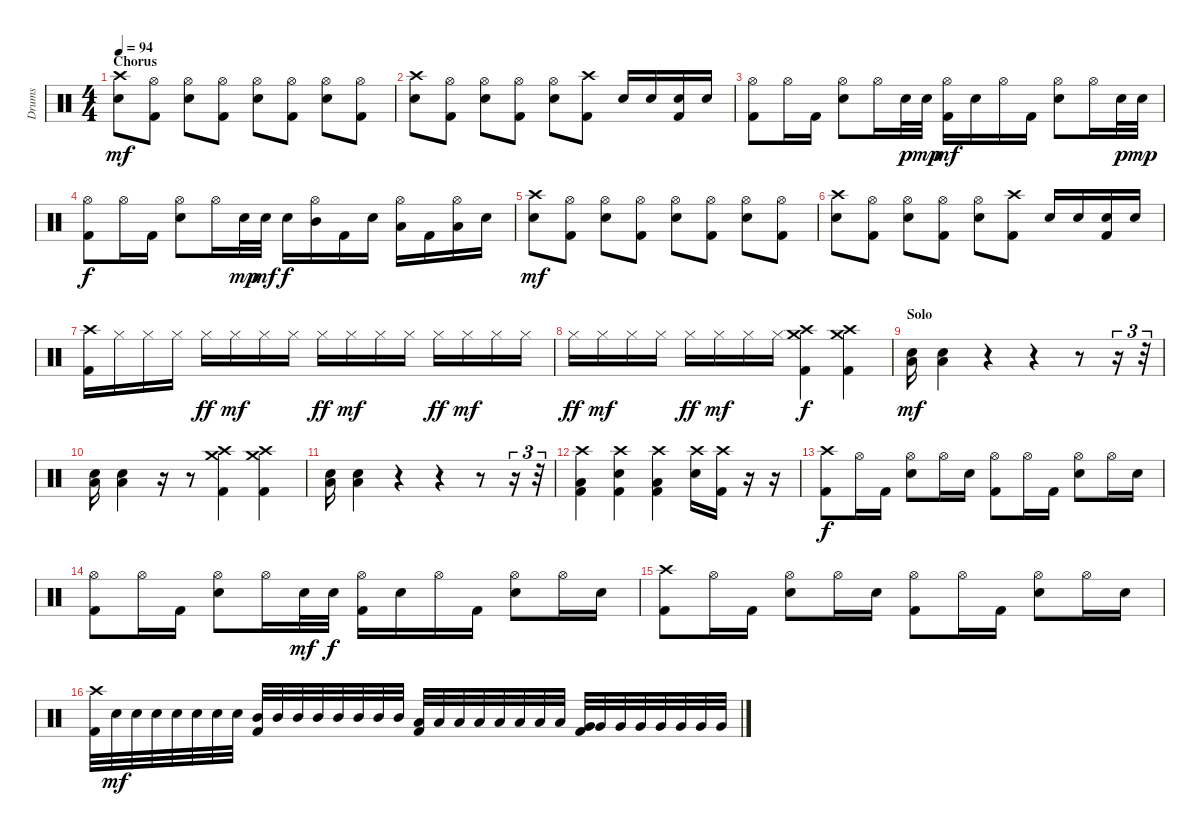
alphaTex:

\track ("Drums" "Drums") {instrument percussion}
\staff {score}
\articulation defaults
\ts (4 4)
\section ("" "Chorus")
\tempo 94
\clef neutral
\ks c
("Crash high (hit)" "Snare (hit) 2").8{dy mf} ("Hi-Hat (open)" "Kick (hit) 2").8 ("Hi-Hat (open)" "Snare (hit) 2").8 ("Hi-Hat (open)" "Kick (hit) 2").8 ("Hi-Hat (open)" "Snare (hit) 2").8 ("Hi-Hat (open)" "Kick (hit) 2").8 ("Hi-Hat (open)" "Snare (hit) 2").8 ("Hi-Hat (open)" "Kick (hit) 2").8 |
("Crash high (hit)" "Snare (hit) 2").8 ("Hi-Hat (open)" "Kick (hit) 2").8 ("Hi-Hat (open)" "Snare (hit) 2").8 ("Hi-Hat (open)" "Kick (hit) 2").8 ("Hi-Hat (open)" "Snare (hit) 2").8 ("Crash high (hit)" "Kick (hit) 2").8 "Snare (hit) 2".16 "Snare (hit) 2".16 ("Snare (hit) 2" "Kick (hit) 2").16 "Snare (hit) 2".16 |
("Hi-Hat (open)" "Kick (hit) 2").8 "Hi-Hat (open)".16 "Kick (hit) 2".16 ("Hi-Hat (open)" "Snare (hit) 2").8 "Hi-Hat (open)".16 "Snare (hit) 2".32{dy p} "Snare (hit) 2".32{dy mp} ("Hi-Hat (open)" "Kick (hit) 2").16{dy mf} "Snare (hit) 2".16 "Hi-Hat (open)".16 "Kick (hit) 2".16 ("Hi-Hat (open)" "Snare (hit) 2").8 "Hi-Hat (open)".16 "Snare (hit) 2".32{dy p} "Snare (hit) 2".32{dy mp} |
("Hi-Hat (open)" "Kick (hit) 2").8{dy f} "Hi-Hat (open)".16 "Kick (hit) 2".16 ("Hi-Hat (open)" "Snare (hit) 2").8 "Hi-Hat (open)".16 "Snare (hit) 2".32{dy mp} "Snare (hit) 2".32{dy mf} "Snare (hit) 2".16{dy f} ("Hi-Hat (open)" "Mid Tom (hit)").16 "Kick (hit) 2".16 "Snare (hit) 2".16 ("Hi-Hat (open)" "Low Tom (hit)").16 "Kick (hit) 2".16 ("Hi-Hat (open)" "Low Floor Tom (hit)").16 "Snare (hit) 2".16 |
("Crash high (hit)" "Snare (hit) 2").8{dy mf} ("Hi-Hat (open)" "Kick (hit) 2").8 ("Hi-Hat (open)" "Snare (hit) 2").8 ("Hi-Hat (open)" "Kick (hit) 2").8 ("Hi-Hat (open)" "Snare (hit) 2").8 ("Hi-Hat (open)" "Kick (hit) 2").8 ("Hi-Hat (open)" "Snare (hit) 2").8 ("Hi-Hat (open)" "Kick (hit) 2").8 |
("Crash high (hit)" "Snare (hit) 2").8 ("Hi-Hat (open)" "Kick (hit) 2").8 ("Hi-Hat (open)" "Snare (hit) 2").8 ("Hi-Hat (open)" "Kick (hit) 2").8 ("Hi-Hat (open)" "Snare (hit) 2").8 ("Crash high (hit)" "Kick (hit) 2").8 "Snare (hit) 2".16 "Snare (hit) 2".16 ("Snare (hit) 2" "Kick (hit) 2").16 "Snare (hit) 2".16 |
("Crash high (hit)" "Kick (hit) 2").16 "Hi-Hat (closed)".16 "Hi-Hat (closed)".16 "Hi-Hat (closed)".16 "Hi-Hat (closed)".16{dy ff} "Hi-Hat (closed)".16{dy mf} "Hi-Hat (closed)".16 "Hi-Hat (closed)".16 "Hi-Hat (closed)".16{dy ff} "Hi-Hat (closed)".16{dy mf} "Hi-Hat (closed)".16 "Hi-Hat (closed)".16 "Hi-Hat (closed)".16{dy ff} "Hi-Hat (closed)".16{dy mf} "Hi-Hat (closed)".16 "Hi-Hat (closed)".16 |
"Hi-Hat (closed)".16{dy ff} "Hi-Hat (closed)".16{dy mf} "Hi-Hat (closed)".16 "Hi-Hat (closed)".16 "Hi-Hat (closed)".16{dy ff} "Hi-Hat (closed)".16{dy mf} "Hi-Hat (closed)".16 "Hi-Hat (closed)".16 ("Crash high (hit)" "Crash medium (hit)" "Kick (hit) 2").4{dy f} ("Crash high (hit)" "Crash medium (hit)" "Kick (hit) 2").4 |
\section ("" "Solo")
("Snare (hit) 2" "Low Floor Tom (hit)").16{dy mf} ("Snare (hit) 2" "Low Floor Tom (hit)").4 r.4 r.4 r.8 r.16{tu (3 2)} r.32{tu (3 2)} |
("Snare (hit) 2" "Low Floor Tom (hit)").16 ("Snare (hit) 2" "Low Floor Tom (hit)").4 r.16 r.8 ("Crash high (hit)" "Crash medium (hit)" "Kick (hit) 2").4 ("Crash high (hit)" "Crash medium (hit)" "Kick (hit) 2").4 |
("Snare (hit) 2" "Low Floor Tom (hit)").16 ("Snare (hit) 2" "Low Floor Tom (hit)").4 r.4 r.4 r.8 r.16{tu (3 2)} r.32{tu (3 2)} |
("Crash high (hit)" "Low Floor Tom (hit)" "Kick (hit) 2").4 ("Crash high (hit)" "Snare (hit) 2" "Kick (hit) 2").4 ("Crash high (hit)" "Low Floor Tom (hit)" "Kick (hit) 2").4 ("Crash high (hit)" "Snare (hit) 2").16 ("Crash high (hit)" "Kick (hit) 2").16 r.16 r.16 |
("Crash high (hit)" "Kick (hit) 2").8{dy f} "Hi-Hat (open)".16 "Kick (hit) 2".16 ("Hi-Hat (open)" "Snare (hit) 2").8 "Hi-Hat (open)".16 "Snare (hit) 2".16 ("Hi-Hat (open)" "Kick (hit) 2").8 "Hi-Hat (open)".16 "Kick (hit) 2".16 ("Hi-Hat (open)" "Snare (hit) 2").8 "Hi-Hat (open)".16 "Snare (hit) 2".16 |
("Hi-Hat (open)" "Kick (hit) 2").8 "Hi-Hat (open)".16 "Kick (hit) 2".16 ("Hi-Hat (open)" "Snare (hit) 2").8 "Hi-Hat (open)".16 "Snare (hit) 2".32{dy mf} "Snare (hit) 2".32{dy f} ("Hi-Hat (open)" "Kick (hit) 2").16 "Snare (hit) 2".16 "Hi-Hat (open)".16 "Kick (hit) 2".16 ("Hi-Hat (open)" "Snare (hit) 2").8 "Hi-Hat (open)".16 "Snare (hit) 2".16 |
("Crash high (hit)" "Kick (hit) 2").8 "Hi-Hat (open)".16 "Kick (hit) 2".16 ("Hi-Hat (open)" "Snare (hit) 2").8 "Hi-Hat (open)".16 "Snare (hit) 2".16 ("Hi-Hat (open)" "Kick (hit) 2").8 "Hi-Hat (open)".16 "Kick (hit) 2".16 ("Hi-Hat (open)" "Snare (hit) 2").8 "Hi-Hat (open)".16 "Snare (hit) 2".16 |
("Crash high (hit)" "Kick (hit) 2").32 "Snare (hit) 2".32{dy mf} "Snare (hit) 2".32 "Snare (hit) 2".32 "Snare (hit) 2".32 "Snare (hit) 2".32 "Snare (hit) 2".32 "Snare (hit) 2".32 ("Mid Tom (hit)" "Kick (hit) 2").32 "Mid Tom (hit)".32 "Mid Tom (hit)".32 "Mid Tom (hit)".32 "Mid Tom (hit)".32 "Mid Tom (hit)".32 "Mid Tom (hit)".32 "Mid Tom (hit)".32 ("Low Tom (hit)" "Kick (hit) 2").32 "Low Tom (hit)".32 "Low Tom (hit)".32 "Low Tom (hit)".32 "Low Tom (hit)".32 "Low Tom (hit)".32 "Low Tom (hit)".32 "Low Tom (hit)".32 ("Very Low Tom (hit)" "Kick (hit) 2").32 "Very Low Tom (hit)".32 "Very Low Tom (hit)".32 "Very Low Tom (hit)".32 "Very Low Tom (hit)".32 "Very Low Tom (hit)".32 "Very Low Tom (hit)".32 "Very Low Tom (hit)".32
